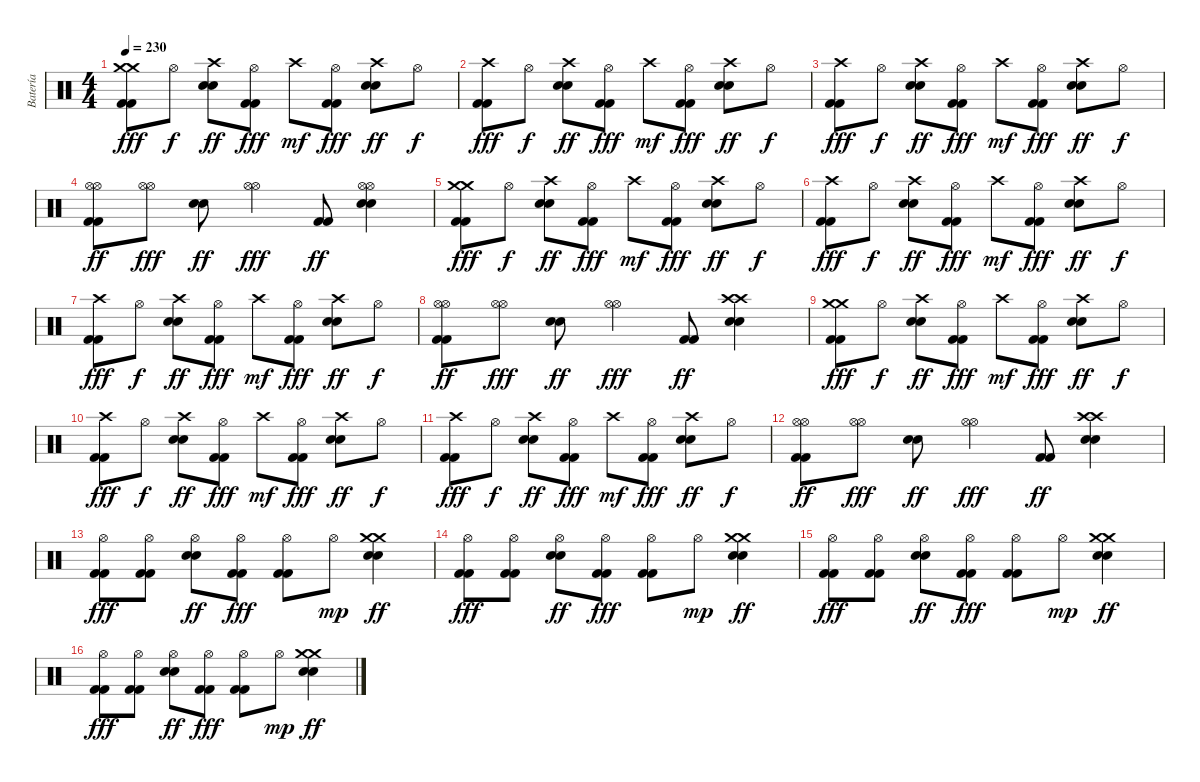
\track ("Batería" "Batería") {instrument percussion}
\staff {score}
\articulation defaults
\ts (4 4)
\tempo 230
\clef neutral
\ks c
("Crash medium (hit)" "Crash medium (hit)" "Kick (hit) 2" "Kick (hit) 2").8{dy fff} "Hi-Hat (open)".8{dy f} ("Crash high (hit)" "Electric Snare (hit)" "Electric Snare (hit)").8{dy ff} ("Hi-Hat (open)" "Kick (hit) 2" "Kick (hit) 2").8{dy fff} "Crash high (hit)".8{dy mf} ("Hi-Hat (open)" "Kick (hit) 2" "Kick (hit) 2").8{dy fff} ("Crash high (hit)" "Electric Snare (hit)" "Electric Snare (hit)").8{dy ff} "Hi-Hat (open)".8{dy f} |
("Crash high (hit)" "Kick (hit) 2" "Kick (hit) 2").8{dy fff} "Hi-Hat (open)".8{dy f} ("Crash high (hit)" "Electric Snare (hit)" "Electric Snare (hit)").8{dy ff} ("Hi-Hat (open)" "Kick (hit) 2" "Kick (hit) 2").8{dy fff} "Crash high (hit)".8{dy mf} ("Hi-Hat (open)" "Kick (hit) 2" "Kick (hit) 2").8{dy fff} ("Crash high (hit)" "Electric Snare (hit)" "Electric Snare (hit)").8{dy ff} "Hi-Hat (open)".8{dy f} |
("Crash high (hit)" "Kick (hit) 2" "Kick (hit) 2").8{dy fff} "Hi-Hat (open)".8{dy f} ("Crash high (hit)" "Electric Snare (hit)" "Electric Snare (hit)").8{dy ff} ("Hi-Hat (open)" "Kick (hit) 2" "Kick (hit) 2").8{dy fff} "Crash high (hit)".8{dy mf} ("Hi-Hat (open)" "Kick (hit) 2" "Kick (hit) 2").8{dy fff} ("Crash high (hit)" "Electric Snare (hit)" "Electric Snare (hit)").8{dy ff} "Hi-Hat (open)".8{dy f} |
("Hi-Hat (open)" "Hi-Hat (open)" "Kick (hit) 2" "Kick (hit) 2").8{dy ff} ("Hi-Hat (open)" "Hi-Hat (open)").8{dy fff} ("Electric Snare (hit)" "Electric Snare (hit)").8{dy ff} ("Hi-Hat (open)" "Hi-Hat (open)").4{dy fff} ("Kick (hit) 2" "Kick (hit) 2").8{dy ff} ("Hi-Hat (open)" "Hi-Hat (open)" "Electric Snare (hit)" "Electric Snare (hit)").4 |
("Crash medium (hit)" "Crash medium (hit)" "Kick (hit) 2" "Kick (hit) 2").8{dy fff} "Hi-Hat (open)".8{dy f} ("Crash high (hit)" "Electric Snare (hit)" "Electric Snare (hit)").8{dy ff} ("Hi-Hat (open)" "Kick (hit) 2" "Kick (hit) 2").8{dy fff} "Crash high (hit)".8{dy mf} ("Hi-Hat (open)" "Kick (hit) 2" "Kick (hit) 2").8{dy fff} ("Crash high (hit)" "Electric Snare (hit)" "Electric Snare (hit)").8{dy ff} "Hi-Hat (open)".8{dy f} |
("Crash high (hit)" "Kick (hit) 2" "Kick (hit) 2").8{dy fff} "Hi-Hat (open)".8{dy f} ("Crash high (hit)" "Electric Snare (hit)" "Electric Snare (hit)").8{dy ff} ("Hi-Hat (open)" "Kick (hit) 2" "Kick (hit) 2").8{dy fff} "Crash high (hit)".8{dy mf} ("Hi-Hat (open)" "Kick (hit) 2" "Kick (hit) 2").8{dy fff} ("Crash high (hit)" "Electric Snare (hit)" "Electric Snare (hit)").8{dy ff} "Hi-Hat (open)".8{dy f} |
("Crash high (hit)" "Kick (hit) 2" "Kick (hit) 2").8{dy fff} "Hi-Hat (open)".8{dy f} ("Crash high (hit)" "Electric Snare (hit)" "Electric Snare (hit)").8{dy ff} ("Hi-Hat (open)" "Kick (hit) 2" "Kick (hit) 2").8{dy fff} "Crash high (hit)".8{dy mf} ("Hi-Hat (open)" "Kick (hit) 2" "Kick (hit) 2").8{dy fff} ("Crash high (hit)" "Electric Snare (hit)" "Electric Snare (hit)").8{dy ff} "Hi-Hat (open)".8{dy f} |
("Hi-Hat (open)" "Hi-Hat (open)" "Kick (hit) 2" "Kick (hit) 2").8{dy ff} ("Hi-Hat (open)" "Hi-Hat (open)").8{dy fff} ("Electric Snare (hit)" "Electric Snare (hit)").8{dy ff} ("Hi-Hat (open)" "Hi-Hat (open)").4{dy fff} ("Kick (hit) 2" "Kick (hit) 2").8{dy ff} ("Crash high (hit)" "Crash high (hit)" "Electric Snare (hit)" "Electric Snare (hit)").4 |
("Crash medium (hit)" "Crash medium (hit)" "Kick (hit) 2" "Kick (hit) 2").8{dy fff} "Hi-Hat (open)".8{dy f} ("Crash high (hit)" "Electric Snare (hit)" "Electric Snare (hit)").8{dy ff} ("Hi-Hat (open)" "Kick (hit) 2" "Kick (hit) 2").8{dy fff} "Crash high (hit)".8{dy mf} ("Hi-Hat (open)" "Kick (hit) 2" "Kick (hit) 2").8{dy fff} ("Crash high (hit)" "Electric Snare (hit)" "Electric Snare (hit)").8{dy ff} "Hi-Hat (open)".8{dy f} |
("Crash high (hit)" "Kick (hit) 2" "Kick (hit) 2").8{dy fff} "Hi-Hat (open)".8{dy f} ("Crash high (hit)" "Electric Snare (hit)" "Electric Snare (hit)").8{dy ff} ("Hi-Hat (open)" "Kick (hit) 2" "Kick (hit) 2").8{dy fff} "Crash high (hit)".8{dy mf} ("Hi-Hat (open)" "Kick (hit) 2" "Kick (hit) 2").8{dy fff} ("Crash high (hit)" "Electric Snare (hit)" "Electric Snare (hit)").8{dy ff} "Hi-Hat (open)".8{dy f} |
("Crash high (hit)" "Kick (hit) 2" "Kick (hit) 2").8{dy fff} "Hi-Hat (open)".8{dy f} ("Crash high (hit)" "Electric Snare (hit)" "Electric Snare (hit)").8{dy ff} ("Hi-Hat (open)" "Kick (hit) 2" "Kick (hit) 2").8{dy fff} "Crash high (hit)".8{dy mf} ("Hi-Hat (open)" "Kick (hit) 2" "Kick (hit) 2").8{dy fff} ("Crash high (hit)" "Electric Snare (hit)" "Electric Snare (hit)").8{dy ff} "Hi-Hat (open)".8{dy f} |
("Hi-Hat (open)" "Hi-Hat (open)" "Kick (hit) 2" "Kick (hit) 2").8{dy ff} ("Hi-Hat (open)" "Hi-Hat (open)").8{dy fff} ("Electric Snare (hit)" "Electric Snare (hit)").8{dy ff} ("Hi-Hat (open)" "Hi-Hat (open)").4{dy fff} ("Kick (hit) 2" "Kick (hit) 2").8{dy ff} ("Crash high (hit)" "Crash high (hit)" "Electric Snare (hit)" "Electric Snare (hit)").4 |
("Hi-Hat (open)" "Kick (hit) 2" "Kick (hit) 2").8{dy fff} ("Hi-Hat (open)" "Kick (hit) 2" "Kick (hit) 2").8 ("Hi-Hat (open)" "Electric Snare (hit)" "Electric Snare (hit)").8{dy ff} ("Hi-Hat (open)" "Kick (hit) 2" "Kick (hit) 2").8{dy fff} ("Hi-Hat (open)" "Kick (hit) 2" "Kick (hit) 2").8 "Hi-Hat (open)".8{dy mp} ("Crash medium (hit)" "Crash medium (hit)" "Electric Snare (hit)" "Electric Snare (hit)").4{dy ff} |
("Hi-Hat (open)" "Kick (hit) 2" "Kick (hit) 2").8{dy fff} ("Hi-Hat (open)" "Kick (hit) 2" "Kick (hit) 2").8 ("Hi-Hat (open)" "Electric Snare (hit)" "Electric Snare (hit)").8{dy ff} ("Hi-Hat (open)" "Kick (hit) 2" "Kick (hit) 2").8{dy fff} ("Hi-Hat (open)" "Kick (hit) 2" "Kick (hit) 2").8 "Hi-Hat (open)".8{dy mp} ("Crash medium (hit)" "Crash medium (hit)" "Electric Snare (hit)" "Electric Snare (hit)").4{dy ff} |
("Hi-Hat (open)" "Kick (hit) 2" "Kick (hit) 2").8{dy fff} ("Hi-Hat (open)" "Kick (hit) 2" "Kick (hit) 2").8 ("Hi-Hat (open)" "Electric Snare (hit)" "Electric Snare (hit)").8{dy ff} ("Hi-Hat (open)" "Kick (hit) 2" "Kick (hit) 2").8{dy fff} ("Hi-Hat (open)" "Kick (hit) 2" "Kick (hit) 2").8 "Hi-Hat (open)".8{dy mp} ("Crash medium (hit)" "Crash medium (hit)" "Electric Snare (hit)" "Electric Snare (hit)").4{dy ff} |
("Hi-Hat (open)" "Kick (hit) 2" "Kick (hit) 2").8{dy fff} ("Hi-Hat (open)" "Kick (hit) 2" "Kick (hit) 2").8 ("Hi-Hat (open)" "Electric Snare (hit)" "Electric Snare (hit)").8{dy ff} ("Hi-Hat (open)" "Kick (hit) 2" "Kick (hit) 2").8{dy fff} ("Hi-Hat (open)" "Kick (hit) 2" "Kick (hit) 2").8 "Hi-Hat (open)".8{dy mp} ("Crash medium (hit)" "Crash medium (hit)" "Electric Snare (hit)" "Electric Snare (hit)").4{dy ff}
